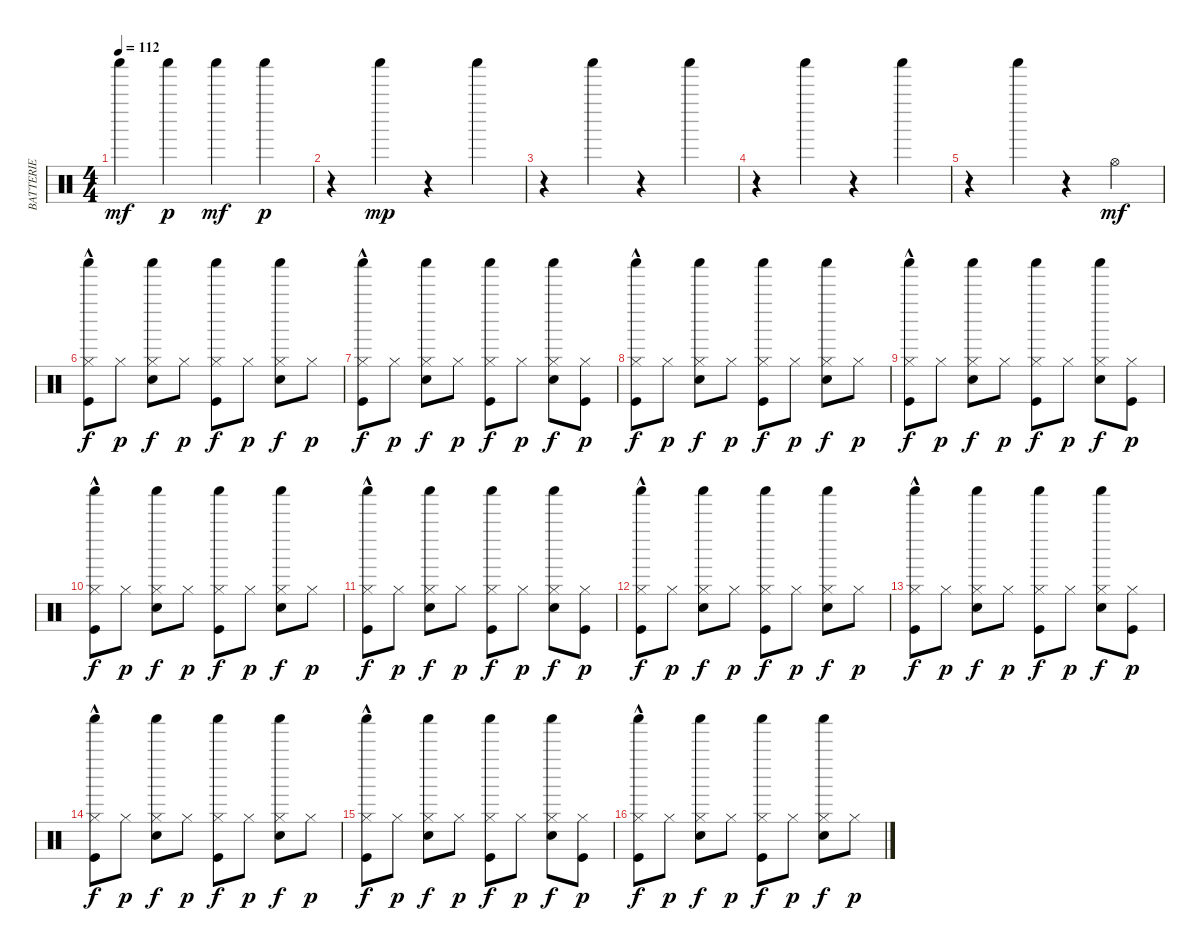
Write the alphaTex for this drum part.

\track ("BATTERIE" "BATTERIE") {instrument percussion}
\staff {score}
\articulation defaults
\ts (4 4)
\tempo 112
\clef neutral
\ks c "Shaker (hit)".4{dy mf} "Shaker (hit)".4{dy p} "Shaker (hit)".4{dy mf} "Shaker (hit)".4{dy p}
|
r.4 "Shaker (hit)".4{dy mp} r.4 "Shaker (hit)".4 |
r.4 "Shaker (hit)".4 r.4 "Shaker (hit)".4 |
r.4 "Shaker (hit)".4 r.4 "Shaker (hit)".4 |
r.4 "Shaker (hit)".4 r.4 "Hi-Hat (open)".4{dy mf} |
("Kick (hit)" "Hi-Hat (closed)"{hac} "Shaker (hit)").8{dy f} "Hi-Hat (closed)".8{dy p} ("Snare (hit) 2" "Hi-Hat (closed)" "Shaker (hit)").8{dy f} "Hi-Hat (closed)".8{dy p} ("Kick (hit)" "Hi-Hat (closed)" "Shaker (hit)").8{dy f} "Hi-Hat (closed)".8{dy p} ("Snare (hit) 2" "Hi-Hat (closed)" "Shaker (hit)").8{dy f} "Hi-Hat (closed)".8{dy p} |
("Kick (hit)" "Hi-Hat (closed)"{hac} "Shaker (hit)").8{dy f} "Hi-Hat (closed)".8{dy p} ("Snare (hit) 2" "Hi-Hat (closed)" "Shaker (hit)").8{dy f} "Hi-Hat (closed)".8{dy p} ("Kick (hit)" "Hi-Hat (closed)" "Shaker (hit)").8{dy f} "Hi-Hat (closed)".8{dy p} ("Snare (hit) 2" "Hi-Hat (closed)" "Shaker (hit)").8{dy f} ("Kick (hit)" "Hi-Hat (closed)").8{dy p} |
("Kick (hit)" "Hi-Hat (closed)"{hac} "Shaker (hit)").8{dy f} "Hi-Hat (closed)".8{dy p} ("Snare (hit) 2" "Hi-Hat (closed)" "Shaker (hit)").8{dy f} "Hi-Hat (closed)".8{dy p} ("Kick (hit)" "Hi-Hat (closed)" "Shaker (hit)").8{dy f} "Hi-Hat (closed)".8{dy p} ("Snare (hit) 2" "Hi-Hat (closed)" "Shaker (hit)").8{dy f} "Hi-Hat (closed)".8{dy p} |
("Kick (hit)" "Hi-Hat (closed)"{hac} "Shaker (hit)").8{dy f} "Hi-Hat (closed)".8{dy p} ("Snare (hit) 2" "Hi-Hat (closed)" "Shaker (hit)").8{dy f} "Hi-Hat (closed)".8{dy p} ("Kick (hit)" "Hi-Hat (closed)" "Shaker (hit)").8{dy f} "Hi-Hat (closed)".8{dy p} ("Snare (hit) 2" "Hi-Hat (closed)" "Shaker (hit)").8{dy f} ("Kick (hit)" "Hi-Hat (closed)").8{dy p} |
("Kick (hit)" "Hi-Hat (closed)"{hac} "Shaker (hit)").8{dy f} "Hi-Hat (closed)".8{dy p} ("Snare (hit) 2" "Hi-Hat (closed)" "Shaker (hit)").8{dy f} "Hi-Hat (closed)".8{dy p} ("Kick (hit)" "Hi-Hat (closed)" "Shaker (hit)").8{dy f} "Hi-Hat (closed)".8{dy p} ("Snare (hit) 2" "Hi-Hat (closed)" "Shaker (hit)").8{dy f} "Hi-Hat (closed)".8{dy p} |
("Kick (hit)" "Hi-Hat (closed)"{hac} "Shaker (hit)").8{dy f} "Hi-Hat (closed)".8{dy p} ("Snare (hit) 2" "Hi-Hat (closed)" "Shaker (hit)").8{dy f} "Hi-Hat (closed)".8{dy p} ("Kick (hit)" "Hi-Hat (closed)" "Shaker (hit)").8{dy f} "Hi-Hat (closed)".8{dy p} ("Snare (hit) 2" "Hi-Hat (closed)" "Shaker (hit)").8{dy f} ("Kick (hit)" "Hi-Hat (closed)").8{dy p} |
("Kick (hit)" "Hi-Hat (closed)"{hac} "Shaker (hit)").8{dy f} "Hi-Hat (closed)".8{dy p} ("Snare (hit) 2" "Hi-Hat (closed)" "Shaker (hit)").8{dy f} "Hi-Hat (closed)".8{dy p} ("Kick (hit)" "Hi-Hat (closed)" "Shaker (hit)").8{dy f} "Hi-Hat (closed)".8{dy p} ("Snare (hit) 2" "Hi-Hat (closed)" "Shaker (hit)").8{dy f} "Hi-Hat (closed)".8{dy p} |
("Kick (hit)" "Hi-Hat (closed)"{hac} "Shaker (hit)").8{dy f} "Hi-Hat (closed)".8{dy p} ("Snare (hit) 2" "Hi-Hat (closed)" "Shaker (hit)").8{dy f} "Hi-Hat (closed)".8{dy p} ("Kick (hit)" "Hi-Hat (closed)" "Shaker (hit)").8{dy f} "Hi-Hat (closed)".8{dy p} ("Snare (hit) 2" "Hi-Hat (closed)" "Shaker (hit)").8{dy f} ("Kick (hit)" "Hi-Hat (closed)").8{dy p} |
("Kick (hit)" "Hi-Hat (closed)"{hac} "Shaker (hit)").8{dy f} "Hi-Hat (closed)".8{dy p} ("Snare (hit) 2" "Hi-Hat (closed)" "Shaker (hit)").8{dy f} "Hi-Hat (closed)".8{dy p} ("Kick (hit)" "Hi-Hat (closed)" "Shaker (hit)").8{dy f} "Hi-Hat (closed)".8{dy p} ("Snare (hit) 2" "Hi-Hat (closed)" "Shaker (hit)").8{dy f} "Hi-Hat (closed)".8{dy p} |
("Kick (hit)" "Hi-Hat (closed)"{hac} "Shaker (hit)").8{dy f} "Hi-Hat (closed)".8{dy p} ("Snare (hit) 2" "Hi-Hat (closed)" "Shaker (hit)").8{dy f} "Hi-Hat (closed)".8{dy p} ("Kick (hit)" "Hi-Hat (closed)" "Shaker (hit)").8{dy f} "Hi-Hat (closed)".8{dy p} ("Snare (hit) 2" "Hi-Hat (closed)" "Shaker (hit)").8{dy f} ("Kick (hit)" "Hi-Hat (closed)").8{dy p} |
("Kick (hit)" "Hi-Hat (closed)"{hac} "Shaker (hit)").8{dy f} "Hi-Hat (closed)".8{dy p} ("Snare (hit) 2" "Hi-Hat (closed)" "Shaker (hit)").8{dy f} "Hi-Hat (closed)".8{dy p} ("Kick (hit)" "Hi-Hat (closed)" "Shaker (hit)").8{dy f} "Hi-Hat (closed)".8{dy p} ("Snare (hit) 2" "Hi-Hat (closed)" "Shaker (hit)").8{dy f} "Hi-Hat (closed)".8{dy p}
